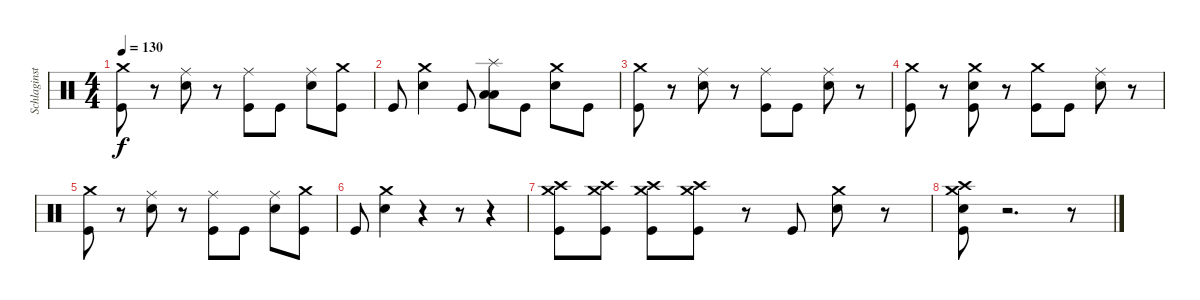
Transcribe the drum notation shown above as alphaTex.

\track ("Schlaginstrumente - Auswahl" "Schlaginst") {instrument percussion}
\staff {score}
\articulation defaults
\ts (4 4)
\tempo 130
\clef neutral
\ks c
("Crash medium (hit)" "Kick (hit)").8{dy f} r.8 ("Ride (middle)" "Snare (hit) 2").8 r.8 ("Ride (middle)" "Kick (hit)").8 "Kick (hit)".8 ("Ride (middle)" "Snare (hit) 2").8 ("Crash medium (hit)" "Kick (hit)").8 |
"Kick (hit)".8 ("Crash medium (hit)" "Snare (hit) 2").4 "Kick (hit)".8 ("Splash (hit)" "Low Tom (hit)" "Low Tom (hit)").8 "Kick (hit)".8 ("Crash medium (hit)" "Snare (hit) 2").8 "Kick (hit)".8 |
("Crash medium (hit)" "Kick (hit)").8 r.8 ("Ride (middle)" "Snare (hit) 2").8 r.8 ("Ride (middle)" "Kick (hit)").8 "Kick (hit)".8 ("Ride (middle)" "Snare (hit) 2").8 r.8 |
("Crash medium (hit)" "Kick (hit)").8 r.8 ("Crash medium (hit)" "Snare (hit) 2" "Kick (hit)").8 r.8 ("Crash medium (hit)" "Kick (hit)").8 "Kick (hit)".8 ("Ride (middle)" "Snare (hit) 2").8 r.8 |
("Crash medium (hit)" "Kick (hit)").8 r.8 ("Ride (middle)" "Snare (hit) 2").8 r.8 ("Ride (middle)" "Kick (hit)").8 "Kick (hit)".8 ("Ride (middle)" "Snare (hit) 2").8 ("Crash medium (hit)" "Kick (hit)").8 |
"Kick (hit)".8 ("Crash medium (hit)" "Snare (hit) 2").4 r.4 r.8 r.4 |
("Crash medium (hit)" "Crash high (hit)" "Kick (hit)").8 ("Crash medium (hit)" "Crash high (hit)" "Kick (hit)").8 ("Crash medium (hit)" "Crash high (hit)" "Kick (hit)").8 ("Crash medium (hit)" "Crash high (hit)" "Kick (hit)").8 r.8 "Kick (hit)".8 ("Crash medium (hit)" "Snare (hit) 2").8 r.8 |
("Crash high (hit)" "Crash medium (hit)" "Snare (hit) 2" "Kick (hit)").8 r.2{d} r.8
